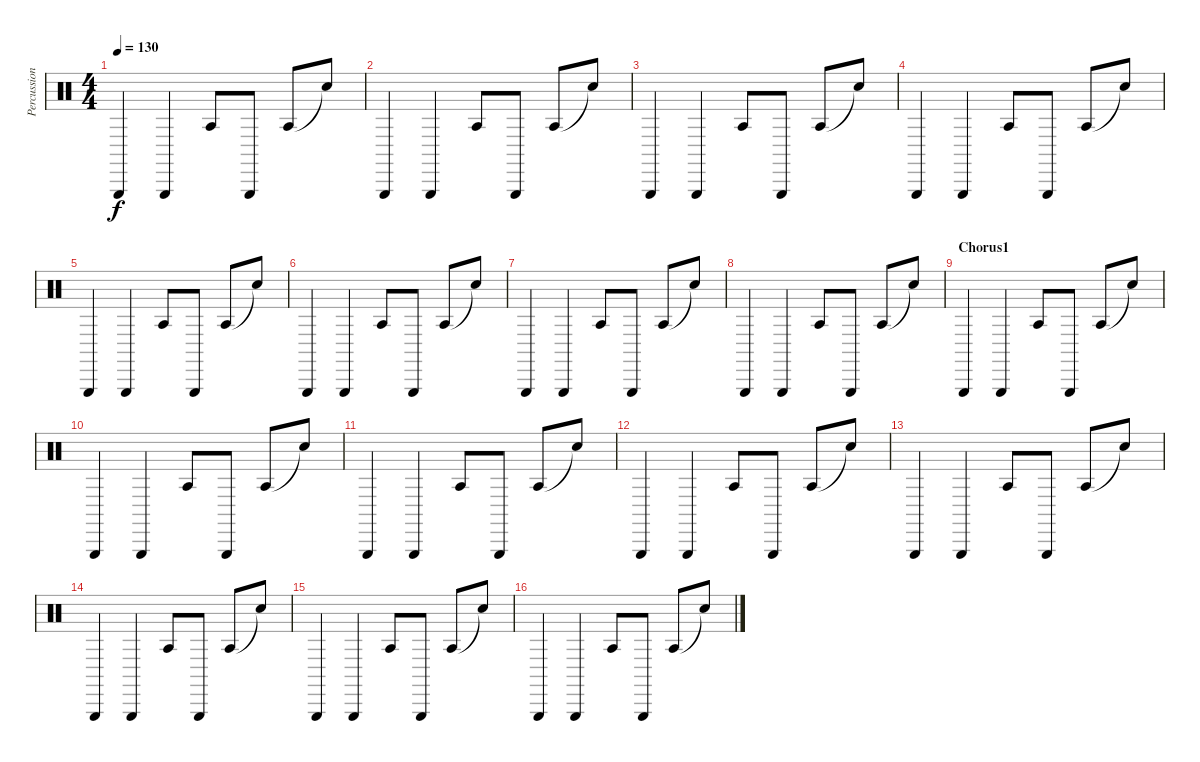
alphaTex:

\track ("Percussion" "Percussion") {instrument percussion}
\staff {score}
\articulation defaults
\ts (4 4)
\tempo 130
\clef neutral
\ks c "Triangle (hit)".4{dy f} "Triangle (hit)".4 "Agogo tow (hit)".8 "Triangle (hit)".8 "Agogo tow (hit)".8 "Snare (hit)"{t}.8
|
"Triangle (hit)".4 "Triangle (hit)".4 "Agogo tow (hit)".8 "Triangle (hit)".8 "Agogo tow (hit)".8 "Snare (hit)"{t}.8 |
"Triangle (hit)".4 "Triangle (hit)".4 "Agogo tow (hit)".8 "Triangle (hit)".8 "Agogo tow (hit)".8 "Snare (hit)"{t}.8 |
"Triangle (hit)".4 "Triangle (hit)".4 "Agogo tow (hit)".8 "Triangle (hit)".8 "Agogo tow (hit)".8 "Snare (hit)"{t}.8 |
"Triangle (hit)".4 "Triangle (hit)".4 "Agogo tow (hit)".8 "Triangle (hit)".8 "Agogo tow (hit)".8 "Snare (hit)"{t}.8 |
"Triangle (hit)".4 "Triangle (hit)".4 "Agogo tow (hit)".8 "Triangle (hit)".8 "Agogo tow (hit)".8 "Snare (hit)"{t}.8 |
"Triangle (hit)".4 "Triangle (hit)".4 "Agogo tow (hit)".8 "Triangle (hit)".8 "Agogo tow (hit)".8 "Snare (hit)"{t}.8 |
"Triangle (hit)".4 "Triangle (hit)".4 "Agogo tow (hit)".8 "Triangle (hit)".8 "Agogo tow (hit)".8 "Snare (hit)"{t}.8 |
\section ("" "Chorus1")
"Triangle (hit)".4 "Triangle (hit)".4 "Agogo tow (hit)".8 "Triangle (hit)".8 "Agogo tow (hit)".8 "Snare (hit)"{t}.8 |
"Triangle (hit)".4 "Triangle (hit)".4 "Agogo tow (hit)".8 "Triangle (hit)".8 "Agogo tow (hit)".8 "Snare (hit)"{t}.8 |
"Triangle (hit)".4 "Triangle (hit)".4 "Agogo tow (hit)".8 "Triangle (hit)".8 "Agogo tow (hit)".8 "Snare (hit)"{t}.8 |
"Triangle (hit)".4 "Triangle (hit)".4 "Agogo tow (hit)".8 "Triangle (hit)".8 "Agogo tow (hit)".8 "Snare (hit)"{t}.8 |
"Triangle (hit)".4 "Triangle (hit)".4 "Agogo tow (hit)".8 "Triangle (hit)".8 "Agogo tow (hit)".8 "Snare (hit)"{t}.8 |
"Triangle (hit)".4 "Triangle (hit)".4 "Agogo tow (hit)".8 "Triangle (hit)".8 "Agogo tow (hit)".8 "Snare (hit)"{t}.8 |
"Triangle (hit)".4 "Triangle (hit)".4 "Agogo tow (hit)".8 "Triangle (hit)".8 "Agogo tow (hit)".8 "Snare (hit)"{t}.8 |
"Triangle (hit)".4 "Triangle (hit)".4 "Agogo tow (hit)".8 "Triangle (hit)".8 "Agogo tow (hit)".8 "Snare (hit)"{t}.8
